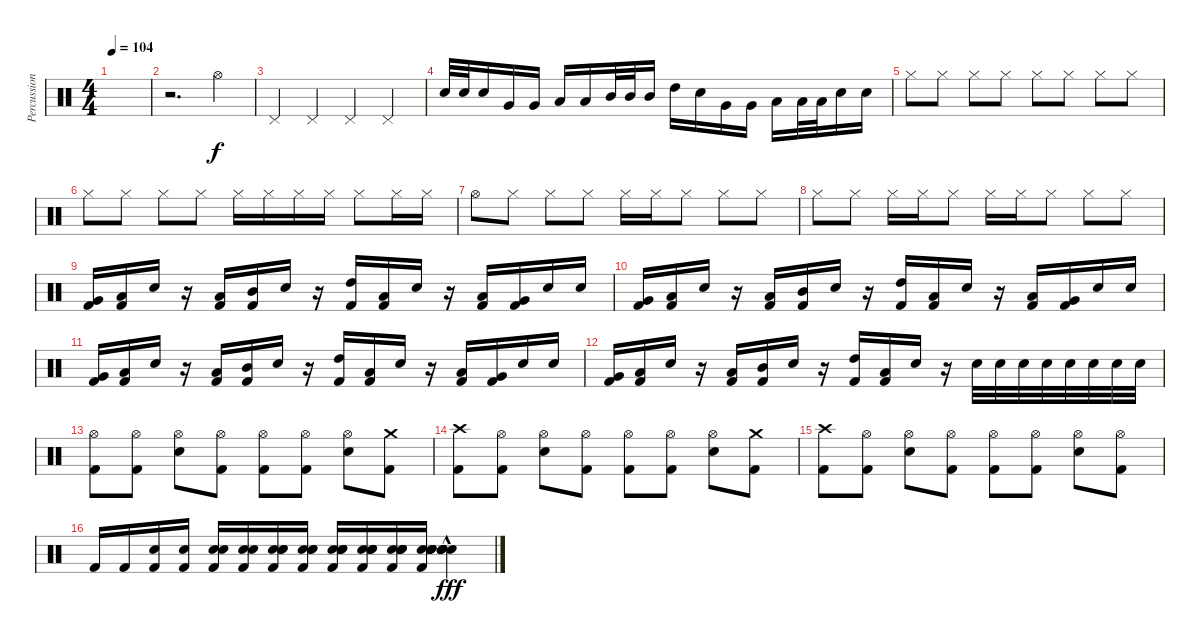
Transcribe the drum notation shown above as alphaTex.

\track ("Percussion" "Percussion") {instrument percussion}
\staff {score}
\articulation defaults
\ts (4 4)
\tempo 104
\clef neutral
\ks c
|
r.2{d} "Hi-Hat (open)".4 |
"Pedal Hi-Hat (hit)".4 "Pedal Hi-Hat (hit)".4 "Pedal Hi-Hat (hit)".4 "Pedal Hi-Hat (hit)".4 |
"Electric Snare (hit)".32 "Electric Snare (hit)".32 "Electric Snare (hit)".16 "Very Low Tom (hit)".16 "Very Low Tom (hit)".16 "Low Tom (hit)".16 "Low Tom (hit)".16 "Mid Tom (hit)".32 "Mid Tom (hit)".32 "Mid Tom (hit)".16 "High Tom (hit)".16 "Electric Snare (hit)".16 "Very Low Tom (hit)".16 "Very Low Tom (hit)".16 "Low Tom (hit)".16 "Low Tom (hit)".32 "Low Tom (hit)".32 "Electric Snare (hit)".16 "Electric Snare (hit)".16 |
"Hi-Hat (closed)".8 "Hi-Hat (closed)".8 "Hi-Hat (closed)".8 "Hi-Hat (closed)".8 "Hi-Hat (closed)".8 "Hi-Hat (closed)".8 "Hi-Hat (closed)".8 "Hi-Hat (closed)".8 |
"Hi-Hat (closed)".8 "Hi-Hat (closed)".8 "Hi-Hat (closed)".8 "Hi-Hat (closed)".8 "Hi-Hat (closed)".16 "Hi-Hat (closed)".16 "Hi-Hat (closed)".16 "Hi-Hat (closed)".16 "Hi-Hat (closed)".8 "Hi-Hat (closed)".16 "Hi-Hat (closed)".16 |
"Hi-Hat (open)".8 "Hi-Hat (closed)".8 "Hi-Hat (closed)".8 "Hi-Hat (closed)".8 "Hi-Hat (closed)".16 "Hi-Hat (closed)".16 "Hi-Hat (closed)".8 "Hi-Hat (closed)".8 "Hi-Hat (closed)".8 |
"Hi-Hat (closed)".8 "Hi-Hat (closed)".8 "Hi-Hat (closed)".16 "Hi-Hat (closed)".16 "Hi-Hat (closed)".8 "Hi-Hat (closed)".16 "Hi-Hat (closed)".16 "Hi-Hat (closed)".8 "Hi-Hat (closed)".8 "Hi-Hat (closed)".8 |
("Very Low Tom (hit)" "Kick (hit) 2").16 ("Low Tom (hit)" "Kick (hit) 2").16 "Electric Snare (hit)".16 r.16 ("Low Tom (hit)" "Kick (hit) 2").16 ("Mid Tom (hit)" "Kick (hit) 2").16 "Electric Snare (hit)".16 r.16 ("High Tom (hit)" "Kick (hit) 2").16 ("Low Floor Tom (hit)" "Kick (hit) 2").16 "Electric Snare (hit)".16 r.16 ("Low Floor Tom (hit)" "Kick (hit) 2").16 ("Very Low Tom (hit)" "Kick (hit) 2").16 "Electric Snare (hit)".16 "Electric Snare (hit)".16 |
("Very Low Tom (hit)" "Kick (hit) 2").16 ("Low Tom (hit)" "Kick (hit) 2").16 "Electric Snare (hit)".16 r.16 ("Low Tom (hit)" "Kick (hit) 2").16 ("Mid Tom (hit)" "Kick (hit) 2").16 "Electric Snare (hit)".16 r.16 ("High Tom (hit)" "Kick (hit) 2").16 ("Low Floor Tom (hit)" "Kick (hit) 2").16 "Electric Snare (hit)".16 r.16 ("Low Floor Tom (hit)" "Kick (hit) 2").16 ("Very Low Tom (hit)" "Kick (hit) 2").16 "Electric Snare (hit)".16 "Electric Snare (hit)".16 |
("Very Low Tom (hit)" "Kick (hit) 2").16 ("Low Tom (hit)" "Kick (hit) 2").16 "Electric Snare (hit)".16 r.16 ("Low Tom (hit)" "Kick (hit) 2").16 ("Mid Tom (hit)" "Kick (hit) 2").16 "Electric Snare (hit)".16 r.16 ("High Tom (hit)" "Kick (hit) 2").16 ("Low Floor Tom (hit)" "Kick (hit) 2").16 "Electric Snare (hit)".16 r.16 ("Low Floor Tom (hit)" "Kick (hit) 2").16 ("Very Low Tom (hit)" "Kick (hit) 2").16 "Electric Snare (hit)".16 "Electric Snare (hit)".16 |
("Very Low Tom (hit)" "Kick (hit) 2").16 ("Low Tom (hit)" "Kick (hit) 2").16 "Electric Snare (hit)".16 r.16 ("Low Tom (hit)" "Kick (hit) 2").16 ("Mid Tom (hit)" "Kick (hit) 2").16 "Electric Snare (hit)".16 r.16 ("High Tom (hit)" "Kick (hit) 2").16 ("Low Floor Tom (hit)" "Kick (hit) 2").16 "Electric Snare (hit)".16 r.16 "Electric Snare (hit)".32 "Electric Snare (hit)".32 "Electric Snare (hit)".32 "Electric Snare (hit)".32 "Electric Snare (hit)".32 "Electric Snare (hit)".32 "Electric Snare (hit)".32 "Electric Snare (hit)".32 |
("Hi-Hat (open)" "Kick (hit) 2").8 ("Hi-Hat (open)" "Kick (hit) 2").8 ("Hi-Hat (open)" "Electric Snare (hit)").8 ("Hi-Hat (open)" "Kick (hit) 2").8 ("Hi-Hat (open)" "Kick (hit) 2").8 ("Hi-Hat (open)" "Kick (hit) 2").8 ("Hi-Hat (open)" "Electric Snare (hit)").8 ("Crash medium (hit)" "Kick (hit) 2").8 |
("Crash high (hit)" "Kick (hit) 2").8 ("Hi-Hat (open)" "Kick (hit) 2").8 ("Hi-Hat (open)" "Electric Snare (hit)").8 ("Hi-Hat (open)" "Kick (hit) 2").8 ("Hi-Hat (open)" "Kick (hit) 2").8 ("Hi-Hat (open)" "Kick (hit) 2").8 ("Hi-Hat (open)" "Electric Snare (hit)").8 ("Crash medium (hit)" "Kick (hit) 2").8 |
("Crash high (hit)" "Kick (hit) 2").8 ("Hi-Hat (open)" "Kick (hit) 2").8 ("Hi-Hat (open)" "Electric Snare (hit)").8 ("Hi-Hat (open)" "Kick (hit) 2").8 ("Hi-Hat (open)" "Kick (hit) 2").8 ("Hi-Hat (open)" "Kick (hit) 2").8 ("Hi-Hat (open)" "Electric Snare (hit)").8 ("Hi-Hat (open)" "Kick (hit) 2").8 |
"Kick (hit) 2".16 "Kick (hit) 2".16 ("Electric Snare (hit)" "Kick (hit) 2").16 ("Electric Snare (hit)" "Kick (hit) 2").16 ("Electric Snare (hit)" "Electric Snare (hit)" "Kick (hit) 2").16 ("Electric Snare (hit)" "Electric Snare (hit)" "Kick (hit) 2").16 ("Electric Snare (hit)" "Electric Snare (hit)" "Electric Snare (hit)" "Kick (hit) 2").16 ("Electric Snare (hit)" "Electric Snare (hit)" "Electric Snare (hit)" "Kick (hit) 2").16 ("Electric Snare (hit)" "Electric Snare (hit)" "Electric Snare (hit)" "Electric Snare (hit)" "Kick (hit) 2").16 ("Electric Snare (hit)" "Electric Snare (hit)" "Electric Snare (hit)" "Electric Snare (hit)" "Kick (hit) 2").16 ("Electric Snare (hit)" "Electric Snare (hit)" "Electric Snare (hit)" "Electric Snare (hit)" "Electric Snare (hit)" "Kick (hit) 2").16 ("Electric Snare (hit)" "Electric Snare (hit)" "Electric Snare (hit)" "Electric Snare (hit)" "Electric Snare (hit)" "Kick (hit) 2").16 ("Electric Snare (hit)"{hac} "Electric Snare (hit)"{hac} "Electric Snare (hit)"{hac} "Electric Snare (hit)"{hac} "Electric Snare (hit)"{hac} "Electric Snare (hit)"{hac}).4{dy fff}
